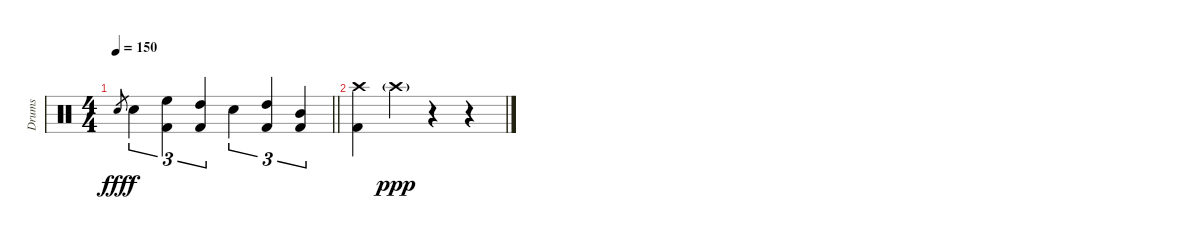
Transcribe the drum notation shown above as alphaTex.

\track ("Drums" "Drums") {instrument percussion}
\staff {score}
\articulation defaults
\ts (4 4)
\tempo 150
\clef neutral
\barLineRight lightlight
\ks c "Electric Snare (hit)".8{gr dy fff} "Electric Snare (hit)".4{tu (3 2) dy f}
("High Floor Tom (hit)" "Kick (hit) 2").4{tu (3 2)} ("High Tom (hit)" "Kick (hit) 2").4{tu (3 2)} "Electric Snare (hit)".4{tu (3 2)} ("High Tom (hit)" "Kick (hit) 2").4{tu (3 2)} ("Mid Tom (hit)" "Kick (hit) 2").4{tu (3 2)} |
("Crash high (hit)" "Kick (hit) 2").4 "Crash high (hit)"{g}.4{dy ppp} r.4 r.4
